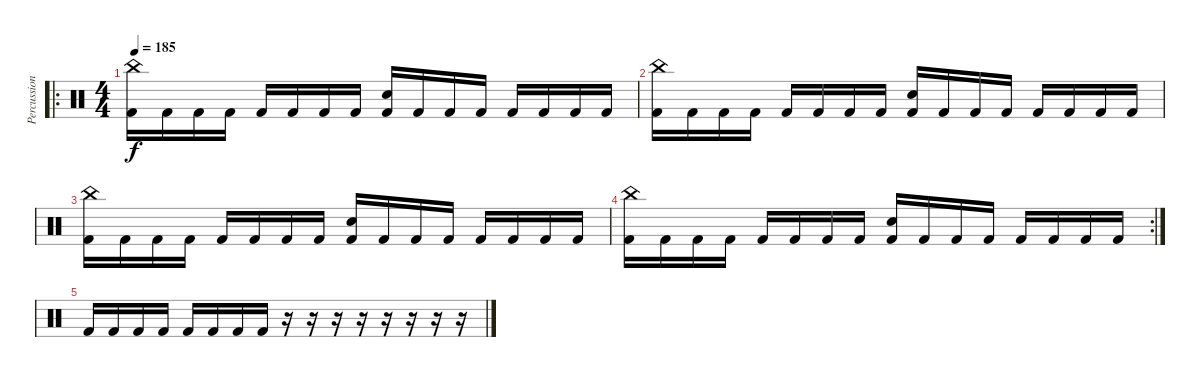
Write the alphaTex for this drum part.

\track ("Percussion" "Percussion") {instrument percussion}
\staff {score}
\articulation defaults
\ro
\ts (4 4)
\tempo 185
\clef neutral
\ks c
("China (hit)" "Kick (hit) 2").16{dy f} "Kick (hit) 2".16 "Kick (hit) 2".16 "Kick (hit) 2".16 "Kick (hit) 2".16 "Kick (hit) 2".16 "Kick (hit) 2".16 "Kick (hit) 2".16 ("Electric Snare (hit)" "Kick (hit) 2").16 "Kick (hit) 2".16 "Kick (hit) 2".16 "Kick (hit) 2".16 "Kick (hit) 2".16 "Kick (hit) 2".16 "Kick (hit) 2".16 "Kick (hit) 2".16 |
("China (hit)" "Kick (hit) 2").16 "Kick (hit) 2".16 "Kick (hit) 2".16 "Kick (hit) 2".16 "Kick (hit) 2".16 "Kick (hit) 2".16 "Kick (hit) 2".16 "Kick (hit) 2".16 ("Electric Snare (hit)" "Kick (hit) 2").16 "Kick (hit) 2".16 "Kick (hit) 2".16 "Kick (hit) 2".16 "Kick (hit) 2".16 "Kick (hit) 2".16 "Kick (hit) 2".16 "Kick (hit) 2".16 |
("China (hit)" "Kick (hit) 2").16 "Kick (hit) 2".16 "Kick (hit) 2".16 "Kick (hit) 2".16 "Kick (hit) 2".16 "Kick (hit) 2".16 "Kick (hit) 2".16 "Kick (hit) 2".16 ("Electric Snare (hit)" "Kick (hit) 2").16 "Kick (hit) 2".16 "Kick (hit) 2".16 "Kick (hit) 2".16 "Kick (hit) 2".16 "Kick (hit) 2".16 "Kick (hit) 2".16 "Kick (hit) 2".16 |
\rc 2
("China (hit)" "Kick (hit) 2").16 "Kick (hit) 2".16 "Kick (hit) 2".16 "Kick (hit) 2".16 "Kick (hit) 2".16 "Kick (hit) 2".16 "Kick (hit) 2".16 "Kick (hit) 2".16 ("Electric Snare (hit)" "Kick (hit) 2").16 "Kick (hit) 2".16 "Kick (hit) 2".16 "Kick (hit) 2".16 "Kick (hit) 2".16 "Kick (hit) 2".16 "Kick (hit) 2".16 "Kick (hit) 2".16 |
"Kick (hit) 2".16 "Kick (hit) 2".16 "Kick (hit) 2".16 "Kick (hit) 2".16 "Kick (hit) 2".16 "Kick (hit) 2".16 "Kick (hit) 2".16 "Kick (hit) 2".16 r.16 r.16 r.16 r.16 r.16 r.16 r.16 r.16
